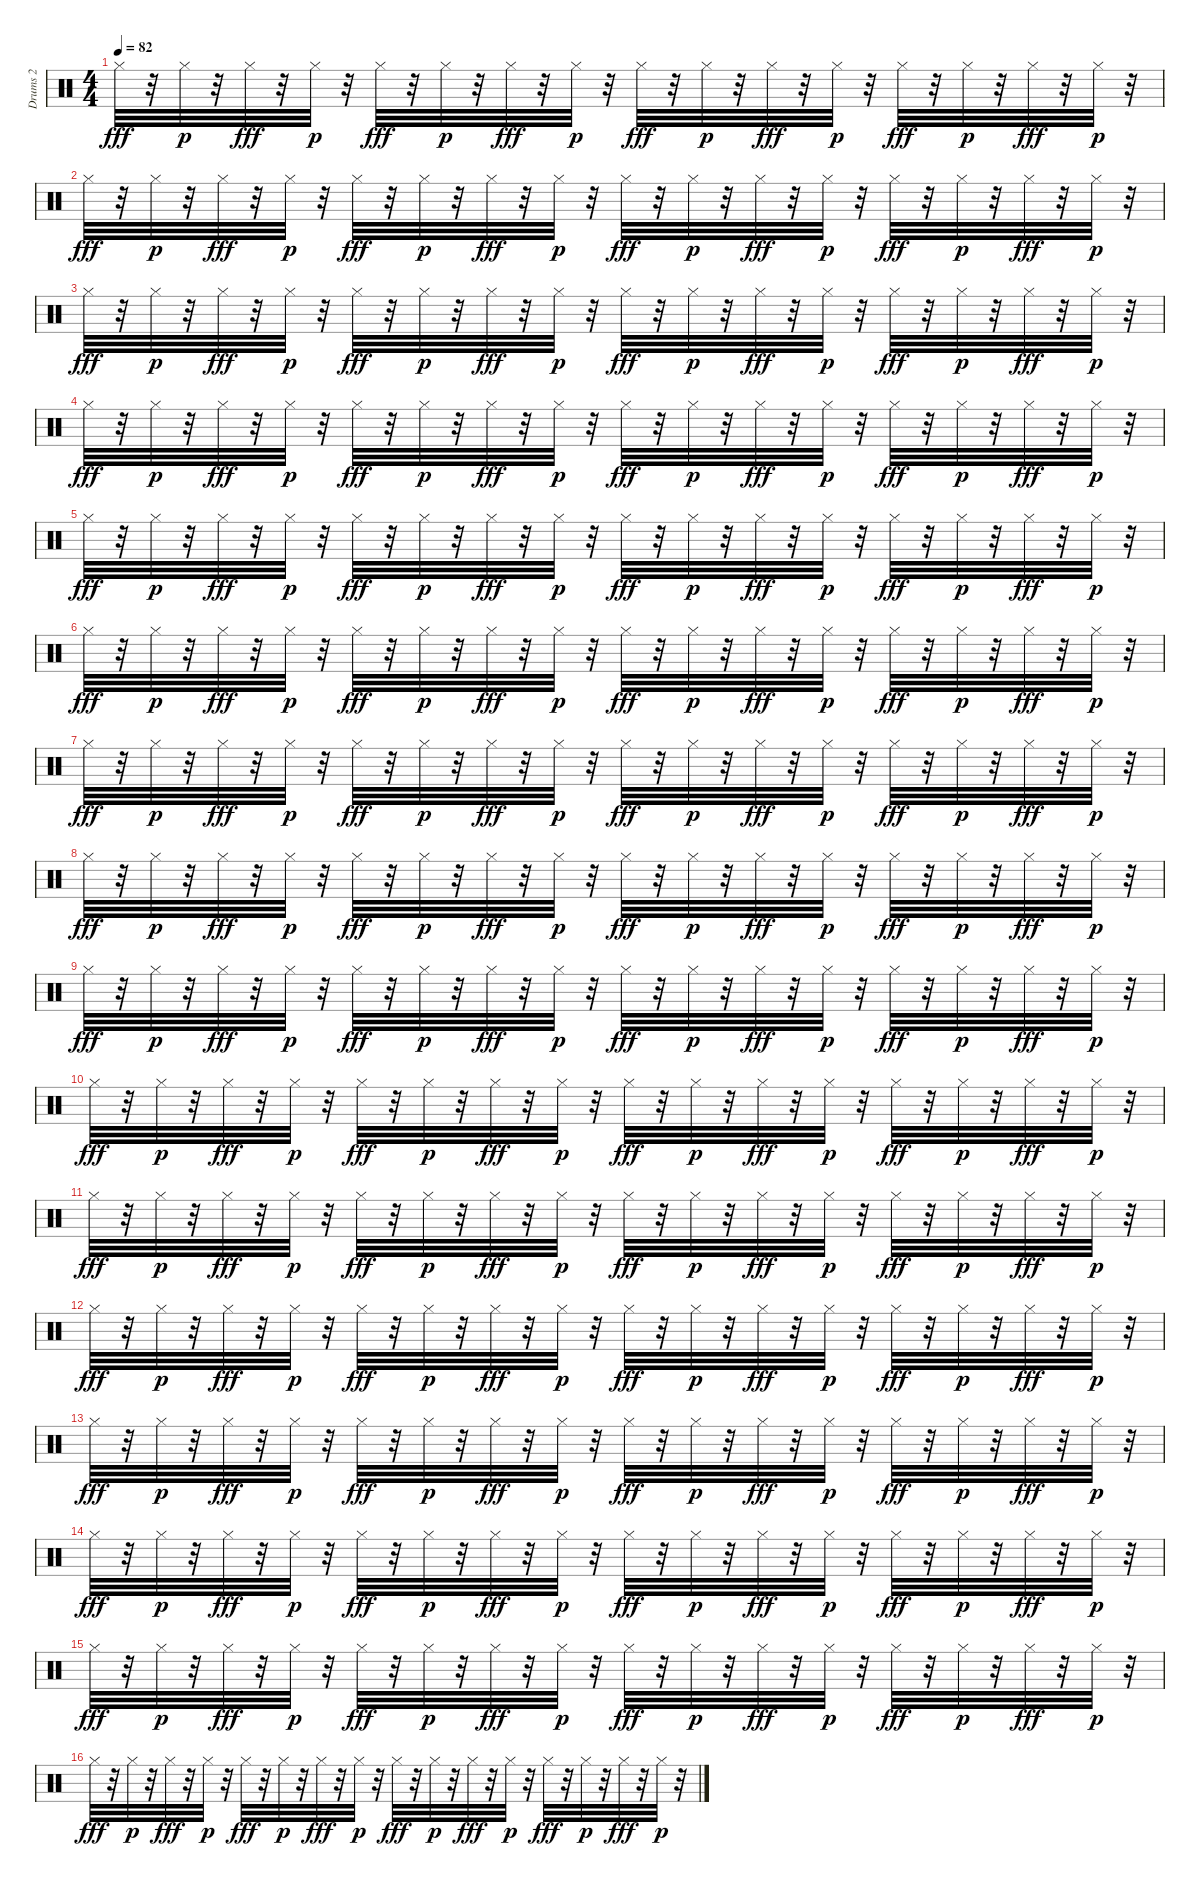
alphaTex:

\track ("Drums 2" "Drums 2") {instrument percussion}
\staff {score}
\articulation defaults
\ts (4 4)
\tempo 82
\clef neutral
\ks c "Hi-Hat (closed)".32{dy fff}
r.32 "Hi-Hat (closed)".32{dy p} r.32 "Hi-Hat (closed)".32{dy fff} r.32 "Hi-Hat (closed)".32{dy p} r.32 "Hi-Hat (closed)".32{dy fff} r.32 "Hi-Hat (closed)".32{dy p} r.32 "Hi-Hat (closed)".32{dy fff} r.32 "Hi-Hat (closed)".32{dy p} r.32 "Hi-Hat (closed)".32{dy fff} r.32 "Hi-Hat (closed)".32{dy p} r.32 "Hi-Hat (closed)".32{dy fff} r.32 "Hi-Hat (closed)".32{dy p} r.32 "Hi-Hat (closed)".32{dy fff} r.32 "Hi-Hat (closed)".32{dy p} r.32 "Hi-Hat (closed)".32{dy fff} r.32 "Hi-Hat (closed)".32{dy p} r.32 |
"Hi-Hat (closed)".32{dy fff} r.32 "Hi-Hat (closed)".32{dy p} r.32 "Hi-Hat (closed)".32{dy fff} r.32 "Hi-Hat (closed)".32{dy p} r.32 "Hi-Hat (closed)".32{dy fff} r.32 "Hi-Hat (closed)".32{dy p} r.32 "Hi-Hat (closed)".32{dy fff} r.32 "Hi-Hat (closed)".32{dy p} r.32 "Hi-Hat (closed)".32{dy fff} r.32 "Hi-Hat (closed)".32{dy p} r.32 "Hi-Hat (closed)".32{dy fff} r.32 "Hi-Hat (closed)".32{dy p} r.32 "Hi-Hat (closed)".32{dy fff} r.32 "Hi-Hat (closed)".32{dy p} r.32 "Hi-Hat (closed)".32{dy fff} r.32 "Hi-Hat (closed)".32{dy p} r.32 |
"Hi-Hat (closed)".32{dy fff} r.32 "Hi-Hat (closed)".32{dy p} r.32 "Hi-Hat (closed)".32{dy fff} r.32 "Hi-Hat (closed)".32{dy p} r.32 "Hi-Hat (closed)".32{dy fff} r.32 "Hi-Hat (closed)".32{dy p} r.32 "Hi-Hat (closed)".32{dy fff} r.32 "Hi-Hat (closed)".32{dy p} r.32 "Hi-Hat (closed)".32{dy fff} r.32 "Hi-Hat (closed)".32{dy p} r.32 "Hi-Hat (closed)".32{dy fff} r.32 "Hi-Hat (closed)".32{dy p} r.32 "Hi-Hat (closed)".32{dy fff} r.32 "Hi-Hat (closed)".32{dy p} r.32 "Hi-Hat (closed)".32{dy fff} r.32 "Hi-Hat (closed)".32{dy p} r.32 |
"Hi-Hat (closed)".32{dy fff} r.32 "Hi-Hat (closed)".32{dy p} r.32 "Hi-Hat (closed)".32{dy fff} r.32 "Hi-Hat (closed)".32{dy p} r.32 "Hi-Hat (closed)".32{dy fff} r.32 "Hi-Hat (closed)".32{dy p} r.32 "Hi-Hat (closed)".32{dy fff} r.32 "Hi-Hat (closed)".32{dy p} r.32 "Hi-Hat (closed)".32{dy fff} r.32 "Hi-Hat (closed)".32{dy p} r.32 "Hi-Hat (closed)".32{dy fff} r.32 "Hi-Hat (closed)".32{dy p} r.32 "Hi-Hat (closed)".32{dy fff} r.32 "Hi-Hat (closed)".32{dy p} r.32 "Hi-Hat (closed)".32{dy fff} r.32 "Hi-Hat (closed)".32{dy p} r.32 |
"Hi-Hat (closed)".32{dy fff} r.32 "Hi-Hat (closed)".32{dy p} r.32 "Hi-Hat (closed)".32{dy fff} r.32 "Hi-Hat (closed)".32{dy p} r.32 "Hi-Hat (closed)".32{dy fff} r.32 "Hi-Hat (closed)".32{dy p} r.32 "Hi-Hat (closed)".32{dy fff} r.32 "Hi-Hat (closed)".32{dy p} r.32 "Hi-Hat (closed)".32{dy fff} r.32 "Hi-Hat (closed)".32{dy p} r.32 "Hi-Hat (closed)".32{dy fff} r.32 "Hi-Hat (closed)".32{dy p} r.32 "Hi-Hat (closed)".32{dy fff} r.32 "Hi-Hat (closed)".32{dy p} r.32 "Hi-Hat (closed)".32{dy fff} r.32 "Hi-Hat (closed)".32{dy p} r.32 |
"Hi-Hat (closed)".32{dy fff} r.32 "Hi-Hat (closed)".32{dy p} r.32 "Hi-Hat (closed)".32{dy fff} r.32 "Hi-Hat (closed)".32{dy p} r.32 "Hi-Hat (closed)".32{dy fff} r.32 "Hi-Hat (closed)".32{dy p} r.32 "Hi-Hat (closed)".32{dy fff} r.32 "Hi-Hat (closed)".32{dy p} r.32 "Hi-Hat (closed)".32{dy fff} r.32 "Hi-Hat (closed)".32{dy p} r.32 "Hi-Hat (closed)".32{dy fff} r.32 "Hi-Hat (closed)".32{dy p} r.32 "Hi-Hat (closed)".32{dy fff} r.32 "Hi-Hat (closed)".32{dy p} r.32 "Hi-Hat (closed)".32{dy fff} r.32 "Hi-Hat (closed)".32{dy p} r.32 |
"Hi-Hat (closed)".32{dy fff} r.32 "Hi-Hat (closed)".32{dy p} r.32 "Hi-Hat (closed)".32{dy fff} r.32 "Hi-Hat (closed)".32{dy p} r.32 "Hi-Hat (closed)".32{dy fff} r.32 "Hi-Hat (closed)".32{dy p} r.32 "Hi-Hat (closed)".32{dy fff} r.32 "Hi-Hat (closed)".32{dy p} r.32 "Hi-Hat (closed)".32{dy fff} r.32 "Hi-Hat (closed)".32{dy p} r.32 "Hi-Hat (closed)".32{dy fff} r.32 "Hi-Hat (closed)".32{dy p} r.32 "Hi-Hat (closed)".32{dy fff} r.32 "Hi-Hat (closed)".32{dy p} r.32 "Hi-Hat (closed)".32{dy fff} r.32 "Hi-Hat (closed)".32{dy p} r.32 |
"Hi-Hat (closed)".32{dy fff} r.32 "Hi-Hat (closed)".32{dy p} r.32 "Hi-Hat (closed)".32{dy fff} r.32 "Hi-Hat (closed)".32{dy p} r.32 "Hi-Hat (closed)".32{dy fff} r.32 "Hi-Hat (closed)".32{dy p} r.32 "Hi-Hat (closed)".32{dy fff} r.32 "Hi-Hat (closed)".32{dy p} r.32 "Hi-Hat (closed)".32{dy fff} r.32 "Hi-Hat (closed)".32{dy p} r.32 "Hi-Hat (closed)".32{dy fff} r.32 "Hi-Hat (closed)".32{dy p} r.32 "Hi-Hat (closed)".32{dy fff} r.32 "Hi-Hat (closed)".32{dy p} r.32 "Hi-Hat (closed)".32{dy fff} r.32 "Hi-Hat (closed)".32{dy p} r.32 |
"Hi-Hat (closed)".32{dy fff} r.32 "Hi-Hat (closed)".32{dy p} r.32 "Hi-Hat (closed)".32{dy fff} r.32 "Hi-Hat (closed)".32{dy p} r.32 "Hi-Hat (closed)".32{dy fff} r.32 "Hi-Hat (closed)".32{dy p} r.32 "Hi-Hat (closed)".32{dy fff} r.32 "Hi-Hat (closed)".32{dy p} r.32 "Hi-Hat (closed)".32{dy fff} r.32 "Hi-Hat (closed)".32{dy p} r.32 "Hi-Hat (closed)".32{dy fff} r.32 "Hi-Hat (closed)".32{dy p} r.32 "Hi-Hat (closed)".32{dy fff} r.32 "Hi-Hat (closed)".32{dy p} r.32 "Hi-Hat (closed)".32{dy fff} r.32 "Hi-Hat (closed)".32{dy p} r.32 |
"Hi-Hat (closed)".32{dy fff} r.32 "Hi-Hat (closed)".32{dy p} r.32 "Hi-Hat (closed)".32{dy fff} r.32 "Hi-Hat (closed)".32{dy p} r.32 "Hi-Hat (closed)".32{dy fff} r.32 "Hi-Hat (closed)".32{dy p} r.32 "Hi-Hat (closed)".32{dy fff} r.32 "Hi-Hat (closed)".32{dy p} r.32 "Hi-Hat (closed)".32{dy fff} r.32 "Hi-Hat (closed)".32{dy p} r.32 "Hi-Hat (closed)".32{dy fff} r.32 "Hi-Hat (closed)".32{dy p} r.32 "Hi-Hat (closed)".32{dy fff} r.32 "Hi-Hat (closed)".32{dy p} r.32 "Hi-Hat (closed)".32{dy fff} r.32 "Hi-Hat (closed)".32{dy p} r.32 |
"Hi-Hat (closed)".32{dy fff} r.32 "Hi-Hat (closed)".32{dy p} r.32 "Hi-Hat (closed)".32{dy fff} r.32 "Hi-Hat (closed)".32{dy p} r.32 "Hi-Hat (closed)".32{dy fff} r.32 "Hi-Hat (closed)".32{dy p} r.32 "Hi-Hat (closed)".32{dy fff} r.32 "Hi-Hat (closed)".32{dy p} r.32 "Hi-Hat (closed)".32{dy fff} r.32 "Hi-Hat (closed)".32{dy p} r.32 "Hi-Hat (closed)".32{dy fff} r.32 "Hi-Hat (closed)".32{dy p} r.32 "Hi-Hat (closed)".32{dy fff} r.32 "Hi-Hat (closed)".32{dy p} r.32 "Hi-Hat (closed)".32{dy fff} r.32 "Hi-Hat (closed)".32{dy p} r.32 |
"Hi-Hat (closed)".32{dy fff} r.32 "Hi-Hat (closed)".32{dy p} r.32 "Hi-Hat (closed)".32{dy fff} r.32 "Hi-Hat (closed)".32{dy p} r.32 "Hi-Hat (closed)".32{dy fff} r.32 "Hi-Hat (closed)".32{dy p} r.32 "Hi-Hat (closed)".32{dy fff} r.32 "Hi-Hat (closed)".32{dy p} r.32 "Hi-Hat (closed)".32{dy fff} r.32 "Hi-Hat (closed)".32{dy p} r.32 "Hi-Hat (closed)".32{dy fff} r.32 "Hi-Hat (closed)".32{dy p} r.32 "Hi-Hat (closed)".32{dy fff} r.32 "Hi-Hat (closed)".32{dy p} r.32 "Hi-Hat (closed)".32{dy fff} r.32 "Hi-Hat (closed)".32{dy p} r.32 |
"Hi-Hat (closed)".32{dy fff} r.32 "Hi-Hat (closed)".32{dy p} r.32 "Hi-Hat (closed)".32{dy fff} r.32 "Hi-Hat (closed)".32{dy p} r.32 "Hi-Hat (closed)".32{dy fff} r.32 "Hi-Hat (closed)".32{dy p} r.32 "Hi-Hat (closed)".32{dy fff} r.32 "Hi-Hat (closed)".32{dy p} r.32 "Hi-Hat (closed)".32{dy fff} r.32 "Hi-Hat (closed)".32{dy p} r.32 "Hi-Hat (closed)".32{dy fff} r.32 "Hi-Hat (closed)".32{dy p} r.32 "Hi-Hat (closed)".32{dy fff} r.32 "Hi-Hat (closed)".32{dy p} r.32 "Hi-Hat (closed)".32{dy fff} r.32 "Hi-Hat (closed)".32{dy p} r.32 |
"Hi-Hat (closed)".32{dy fff} r.32 "Hi-Hat (closed)".32{dy p} r.32 "Hi-Hat (closed)".32{dy fff} r.32 "Hi-Hat (closed)".32{dy p} r.32 "Hi-Hat (closed)".32{dy fff} r.32 "Hi-Hat (closed)".32{dy p} r.32 "Hi-Hat (closed)".32{dy fff} r.32 "Hi-Hat (closed)".32{dy p} r.32 "Hi-Hat (closed)".32{dy fff} r.32 "Hi-Hat (closed)".32{dy p} r.32 "Hi-Hat (closed)".32{dy fff} r.32 "Hi-Hat (closed)".32{dy p} r.32 "Hi-Hat (closed)".32{dy fff} r.32 "Hi-Hat (closed)".32{dy p} r.32 "Hi-Hat (closed)".32{dy fff} r.32 "Hi-Hat (closed)".32{dy p} r.32 |
"Hi-Hat (closed)".32{dy fff} r.32 "Hi-Hat (closed)".32{dy p} r.32 "Hi-Hat (closed)".32{dy fff} r.32 "Hi-Hat (closed)".32{dy p} r.32 "Hi-Hat (closed)".32{dy fff} r.32 "Hi-Hat (closed)".32{dy p} r.32 "Hi-Hat (closed)".32{dy fff} r.32 "Hi-Hat (closed)".32{dy p} r.32 "Hi-Hat (closed)".32{dy fff} r.32 "Hi-Hat (closed)".32{dy p} r.32 "Hi-Hat (closed)".32{dy fff} r.32 "Hi-Hat (closed)".32{dy p} r.32 "Hi-Hat (closed)".32{dy fff} r.32 "Hi-Hat (closed)".32{dy p} r.32 "Hi-Hat (closed)".32{dy fff} r.32 "Hi-Hat (closed)".32{dy p} r.32 |
"Hi-Hat (closed)".32{dy fff} r.32 "Hi-Hat (closed)".32{dy p} r.32 "Hi-Hat (closed)".32{dy fff} r.32 "Hi-Hat (closed)".32{dy p} r.32 "Hi-Hat (closed)".32{dy fff} r.32 "Hi-Hat (closed)".32{dy p} r.32 "Hi-Hat (closed)".32{dy fff} r.32 "Hi-Hat (closed)".32{dy p} r.32 "Hi-Hat (closed)".32{dy fff} r.32 "Hi-Hat (closed)".32{dy p} r.32 "Hi-Hat (closed)".32{dy fff} r.32 "Hi-Hat (closed)".32{dy p} r.32 "Hi-Hat (closed)".32{dy fff} r.32 "Hi-Hat (closed)".32{dy p} r.32 "Hi-Hat (closed)".32{dy fff} r.32 "Hi-Hat (closed)".32{dy p} r.32
